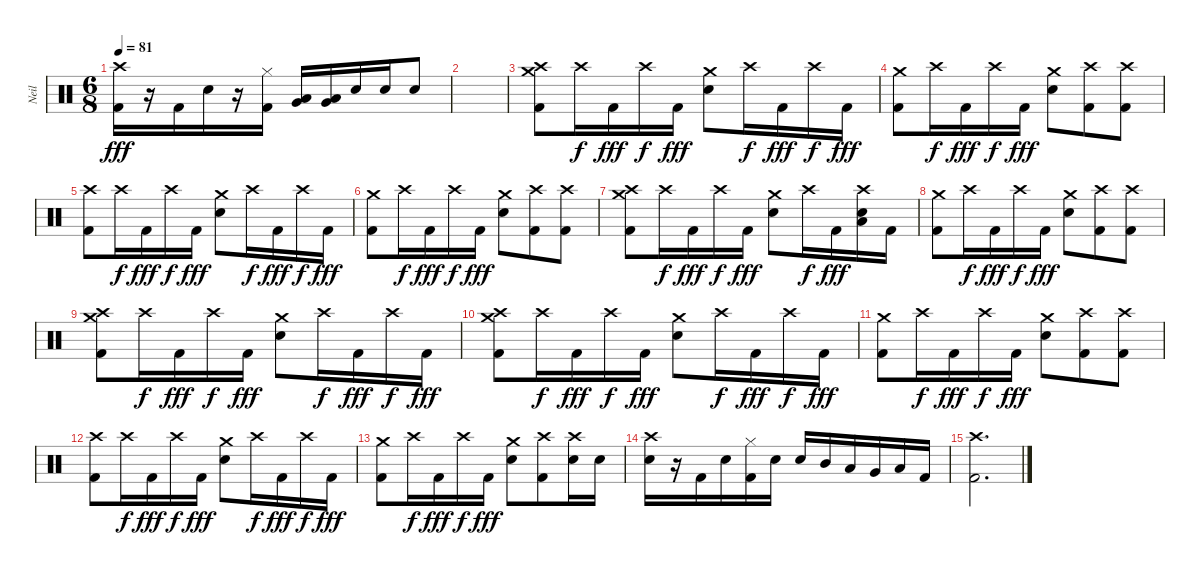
\track ("Neil" "Neil") {instrument percussion}
\staff {score}
\articulation defaults
\ts (6 8)
\tempo 81
\clef neutral
\ks c
("Crash high (hit)" "Kick (hit) 2").16{dy fff} r.16 "Kick (hit) 2".16 "Electric Snare (hit)".16 r.16 ("Hi-Hat (closed)" "Kick (hit) 2").16 ("Low Tom (hit)" "Very Low Tom (hit)").16 ("Low Tom (hit)" "Very Low Tom (hit)").16 "Electric Snare (hit)".16 "Electric Snare (hit)".16 "Electric Snare (hit)".8 |
|
("Crash high (hit)" "Crash medium (hit)" "Kick (hit) 2").8 "Crash high (hit)".16{dy f} "Kick (hit) 2".16{dy fff} "Crash high (hit)".16{dy f} "Kick (hit) 2".16{dy fff} ("Crash medium (hit)" "Electric Snare (hit)").8 "Crash high (hit)".16{dy f} "Kick (hit) 2".16{dy fff} "Crash high (hit)".16{dy f} "Kick (hit) 2".16{dy fff} |
("Crash medium (hit)" "Kick (hit) 2").8 "Crash high (hit)".16{dy f} "Kick (hit) 2".16{dy fff} "Crash high (hit)".16{dy f} "Kick (hit) 2".16{dy fff} ("Crash medium (hit)" "Electric Snare (hit)").8 ("Crash high (hit)" "Kick (hit) 2").8 ("Crash high (hit)" "Kick (hit) 2").8 |
("Crash high (hit)" "Kick (hit) 2").8 "Crash high (hit)".16{dy f} "Kick (hit) 2".16{dy fff} "Crash high (hit)".16{dy f} "Kick (hit) 2".16{dy fff} ("Crash medium (hit)" "Electric Snare (hit)").8 "Crash high (hit)".16{dy f} "Kick (hit) 2".16{dy fff} "Crash high (hit)".16{dy f} "Kick (hit) 2".16{dy fff} |
("Crash medium (hit)" "Kick (hit) 2").8 "Crash high (hit)".16{dy f} "Kick (hit) 2".16{dy fff} "Crash high (hit)".16{dy f} "Kick (hit) 2".16{dy fff} ("Crash medium (hit)" "Electric Snare (hit)").8 ("Crash high (hit)" "Kick (hit) 2").8 ("Crash high (hit)" "Kick (hit) 2").8 |
("Crash high (hit)" "Crash medium (hit)" "Kick (hit) 2").8 "Crash high (hit)".16{dy f} "Kick (hit) 2".16{dy fff} "Crash high (hit)".16{dy f} "Kick (hit) 2".16{dy fff} ("Crash medium (hit)" "Electric Snare (hit)").8 "Crash high (hit)".16{dy f} "Kick (hit) 2".16{dy fff} ("Crash high (hit)" "Low Tom (hit)" "Electric Snare (hit)").16 "Kick (hit) 2".16 |
("Crash medium (hit)" "Kick (hit) 2").8 "Crash high (hit)".16{dy f} "Kick (hit) 2".16{dy fff} "Crash high (hit)".16{dy f} "Kick (hit) 2".16{dy fff} ("Crash medium (hit)" "Electric Snare (hit)").8 ("Crash high (hit)" "Kick (hit) 2").8 ("Crash high (hit)" "Kick (hit) 2").8 |
("Crash high (hit)" "Crash medium (hit)" "Kick (hit) 2").8 "Crash high (hit)".16{dy f} "Kick (hit) 2".16{dy fff} "Crash high (hit)".16{dy f} "Kick (hit) 2".16{dy fff} ("Crash medium (hit)" "Electric Snare (hit)").8 "Crash high (hit)".16{dy f} "Kick (hit) 2".16{dy fff} "Crash high (hit)".16{dy f} "Kick (hit) 2".16{dy fff} |
("Crash high (hit)" "Crash medium (hit)" "Kick (hit) 2").8 "Crash high (hit)".16{dy f} "Kick (hit) 2".16{dy fff} "Crash high (hit)".16{dy f} "Kick (hit) 2".16{dy fff} ("Crash medium (hit)" "Electric Snare (hit)").8 "Crash high (hit)".16{dy f} "Kick (hit) 2".16{dy fff} "Crash high (hit)".16{dy f} "Kick (hit) 2".16{dy fff} |
("Crash medium (hit)" "Kick (hit) 2").8 "Crash high (hit)".16{dy f} "Kick (hit) 2".16{dy fff} "Crash high (hit)".16{dy f} "Kick (hit) 2".16{dy fff} ("Crash medium (hit)" "Electric Snare (hit)").8 ("Crash high (hit)" "Kick (hit) 2").8 ("Crash high (hit)" "Kick (hit) 2").8 |
("Crash high (hit)" "Kick (hit) 2").8 "Crash high (hit)".16{dy f} "Kick (hit) 2".16{dy fff} "Crash high (hit)".16{dy f} "Kick (hit) 2".16{dy fff} ("Crash medium (hit)" "Electric Snare (hit)").8 "Crash high (hit)".16{dy f} "Kick (hit) 2".16{dy fff} "Crash high (hit)".16{dy f} "Kick (hit) 2".16{dy fff} |
("Crash medium (hit)" "Kick (hit) 2").8 "Crash high (hit)".16{dy f} "Kick (hit) 2".16{dy fff} "Crash high (hit)".16{dy f} "Kick (hit) 2".16{dy fff} ("Crash medium (hit)" "Electric Snare (hit)").8 ("Crash high (hit)" "Kick (hit) 2").8 ("Crash high (hit)" "Electric Snare (hit)").16 "Electric Snare (hit)".16 |
("Crash high (hit)" "Electric Snare (hit)").16 r.16 "Kick (hit) 2".16 "Electric Snare (hit)".16 ("Hi-Hat (closed)" "Kick (hit) 2").16 "Electric Snare (hit)".16 "Electric Snare (hit)".16 "Mid Tom (hit)".16 "Low Tom (hit)".16 "Very Low Tom (hit)".16 "Low Floor Tom (hit)".16 "Kick (hit) 2".16 |
("Crash high (hit)" "Kick (hit) 2").2{d}
